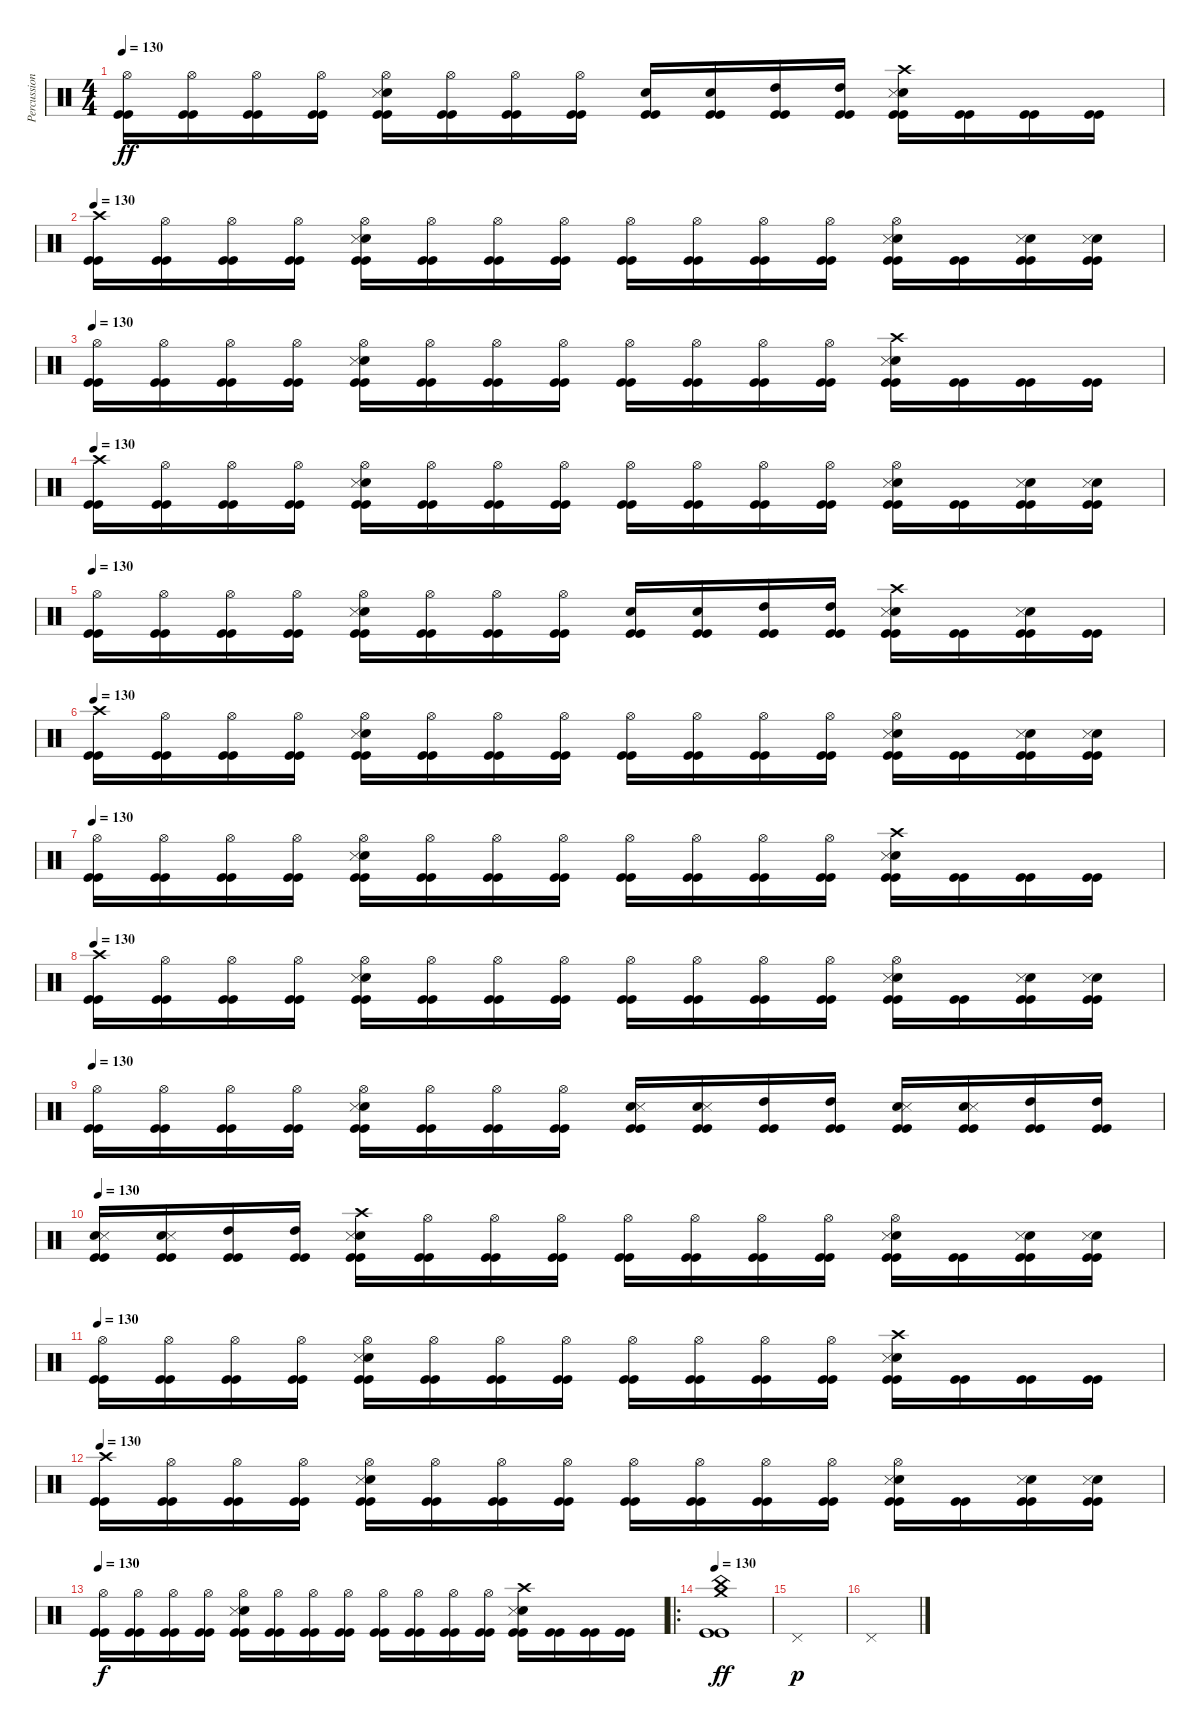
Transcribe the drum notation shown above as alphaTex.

\track ("Percussion" "Percussion") {instrument percussion}
\staff {score}
\articulation defaults
\ts (4 4)
\tempo 130
\clef neutral
\ks c
("Hi-Hat (open)" "Kick (hit)" "Kick (hit)").16{dy ff} ("Hi-Hat (open)" "Kick (hit)" "Kick (hit)").16 ("Hi-Hat (open)" "Kick (hit)" "Kick (hit)").16 ("Hi-Hat (open)" "Kick (hit)" "Kick (hit)").16 ("Electric Snare (hit)" "Snare (side stick) 3" "Hi-Hat (open)" "Kick (hit)" "Kick (hit)").16 ("Hi-Hat (open)" "Kick (hit)" "Kick (hit)").16 ("Hi-Hat (open)" "Kick (hit)" "Kick (hit)").16 ("Hi-Hat (open)" "Kick (hit)" "Kick (hit)").16 ("Electric Snare (hit)" "Kick (hit)" "Kick (hit)").16 ("Electric Snare (hit)" "Kick (hit)" "Kick (hit)").16 ("High Tom (hit)" "Kick (hit)" "Kick (hit)").16 ("High Tom (hit)" "Kick (hit)" "Kick (hit)").16 ("Electric Snare (hit)" "Snare (side stick) 3" "Crash high (hit)" "Kick (hit)" "Kick (hit)").16 ("Kick (hit)" "Kick (hit)").16 ("Kick (hit)" "Kick (hit)").16 ("Kick (hit)" "Kick (hit)").16 |
\tempo 130
("Crash high (hit)" "Kick (hit)" "Kick (hit)").16 ("Hi-Hat (open)" "Kick (hit)" "Kick (hit)").16 ("Hi-Hat (open)" "Kick (hit)" "Kick (hit)").16 ("Hi-Hat (open)" "Kick (hit)" "Kick (hit)").16 ("Electric Snare (hit)" "Snare (side stick) 3" "Hi-Hat (open)" "Kick (hit)" "Kick (hit)").16 ("Hi-Hat (open)" "Kick (hit)" "Kick (hit)").16 ("Hi-Hat (open)" "Kick (hit)" "Kick (hit)").16 ("Hi-Hat (open)" "Kick (hit)" "Kick (hit)").16 ("Hi-Hat (open)" "Kick (hit)" "Kick (hit)").16 ("Hi-Hat (open)" "Kick (hit)" "Kick (hit)").16 ("Hi-Hat (open)" "Kick (hit)" "Kick (hit)").16 ("Hi-Hat (open)" "Kick (hit)" "Kick (hit)").16 ("Electric Snare (hit)" "Snare (side stick) 3" "Hi-Hat (open)" "Kick (hit)" "Kick (hit)").16 ("Kick (hit)" "Kick (hit)").16 ("Electric Snare (hit)" "Snare (side stick) 3" "Kick (hit)" "Kick (hit)").16 ("Electric Snare (hit)" "Snare (side stick) 3" "Kick (hit)" "Kick (hit)").16 |
\tempo 130
("Hi-Hat (open)" "Kick (hit)" "Kick (hit)").16 ("Hi-Hat (open)" "Kick (hit)" "Kick (hit)").16 ("Hi-Hat (open)" "Kick (hit)" "Kick (hit)").16 ("Hi-Hat (open)" "Kick (hit)" "Kick (hit)").16 ("Electric Snare (hit)" "Snare (side stick) 3" "Hi-Hat (open)" "Kick (hit)" "Kick (hit)").16 ("Hi-Hat (open)" "Kick (hit)" "Kick (hit)").16 ("Hi-Hat (open)" "Kick (hit)" "Kick (hit)").16 ("Hi-Hat (open)" "Kick (hit)" "Kick (hit)").16 ("Hi-Hat (open)" "Kick (hit)" "Kick (hit)").16 ("Hi-Hat (open)" "Kick (hit)" "Kick (hit)").16 ("Hi-Hat (open)" "Kick (hit)" "Kick (hit)").16 ("Hi-Hat (open)" "Kick (hit)" "Kick (hit)").16 ("Electric Snare (hit)" "Snare (side stick) 3" "Crash high (hit)" "Kick (hit)" "Kick (hit)").16 ("Kick (hit)" "Kick (hit)").16 ("Kick (hit)" "Kick (hit)").16 ("Kick (hit)" "Kick (hit)").16 |
\tempo 130
("Crash high (hit)" "Kick (hit)" "Kick (hit)").16 ("Hi-Hat (open)" "Kick (hit)" "Kick (hit)").16 ("Hi-Hat (open)" "Kick (hit)" "Kick (hit)").16 ("Hi-Hat (open)" "Kick (hit)" "Kick (hit)").16 ("Electric Snare (hit)" "Snare (side stick) 3" "Hi-Hat (open)" "Kick (hit)" "Kick (hit)").16 ("Hi-Hat (open)" "Kick (hit)" "Kick (hit)").16 ("Hi-Hat (open)" "Kick (hit)" "Kick (hit)").16 ("Hi-Hat (open)" "Kick (hit)" "Kick (hit)").16 ("Hi-Hat (open)" "Kick (hit)" "Kick (hit)").16 ("Hi-Hat (open)" "Kick (hit)" "Kick (hit)").16 ("Hi-Hat (open)" "Kick (hit)" "Kick (hit)").16 ("Hi-Hat (open)" "Kick (hit)" "Kick (hit)").16 ("Electric Snare (hit)" "Snare (side stick) 3" "Hi-Hat (open)" "Kick (hit)" "Kick (hit)").16 ("Kick (hit)" "Kick (hit)").16 ("Electric Snare (hit)" "Snare (side stick) 3" "Kick (hit)" "Kick (hit)").16 ("Electric Snare (hit)" "Snare (side stick) 3" "Kick (hit)" "Kick (hit)").16 |
\tempo 130
("Hi-Hat (open)" "Kick (hit)" "Kick (hit)").16 ("Hi-Hat (open)" "Kick (hit)" "Kick (hit)").16 ("Hi-Hat (open)" "Kick (hit)" "Kick (hit)").16 ("Hi-Hat (open)" "Kick (hit)" "Kick (hit)").16 ("Electric Snare (hit)" "Snare (side stick) 3" "Hi-Hat (open)" "Kick (hit)" "Kick (hit)").16 ("Hi-Hat (open)" "Kick (hit)" "Kick (hit)").16 ("Hi-Hat (open)" "Kick (hit)" "Kick (hit)").16 ("Hi-Hat (open)" "Kick (hit)" "Kick (hit)").16 ("Electric Snare (hit)" "Kick (hit)" "Kick (hit)").16 ("Electric Snare (hit)" "Kick (hit)" "Kick (hit)").16 ("High Tom (hit)" "Kick (hit)" "Kick (hit)").16 ("High Tom (hit)" "Kick (hit)" "Kick (hit)").16 ("Electric Snare (hit)" "Snare (side stick) 3" "Crash high (hit)" "Kick (hit)" "Kick (hit)").16 ("Kick (hit)" "Kick (hit)").16 ("Electric Snare (hit)" "Snare (side stick) 3" "Kick (hit)" "Kick (hit)").16 ("Kick (hit)" "Kick (hit)").16 |
\tempo 130
("Crash high (hit)" "Kick (hit)" "Kick (hit)").16 ("Hi-Hat (open)" "Kick (hit)" "Kick (hit)").16 ("Hi-Hat (open)" "Kick (hit)" "Kick (hit)").16 ("Hi-Hat (open)" "Kick (hit)" "Kick (hit)").16 ("Electric Snare (hit)" "Snare (side stick) 3" "Hi-Hat (open)" "Kick (hit)" "Kick (hit)").16 ("Hi-Hat (open)" "Kick (hit)" "Kick (hit)").16 ("Hi-Hat (open)" "Kick (hit)" "Kick (hit)").16 ("Hi-Hat (open)" "Kick (hit)" "Kick (hit)").16 ("Hi-Hat (open)" "Kick (hit)" "Kick (hit)").16 ("Hi-Hat (open)" "Kick (hit)" "Kick (hit)").16 ("Hi-Hat (open)" "Kick (hit)" "Kick (hit)").16 ("Hi-Hat (open)" "Kick (hit)" "Kick (hit)").16 ("Electric Snare (hit)" "Snare (side stick) 3" "Hi-Hat (open)" "Kick (hit)" "Kick (hit)").16 ("Kick (hit)" "Kick (hit)").16 ("Electric Snare (hit)" "Snare (side stick) 3" "Kick (hit)" "Kick (hit)").16 ("Electric Snare (hit)" "Snare (side stick) 3" "Kick (hit)" "Kick (hit)").16 |
\tempo 130
("Hi-Hat (open)" "Kick (hit)" "Kick (hit)").16 ("Hi-Hat (open)" "Kick (hit)" "Kick (hit)").16 ("Hi-Hat (open)" "Kick (hit)" "Kick (hit)").16 ("Hi-Hat (open)" "Kick (hit)" "Kick (hit)").16 ("Electric Snare (hit)" "Snare (side stick) 3" "Hi-Hat (open)" "Kick (hit)" "Kick (hit)").16 ("Hi-Hat (open)" "Kick (hit)" "Kick (hit)").16 ("Hi-Hat (open)" "Kick (hit)" "Kick (hit)").16 ("Hi-Hat (open)" "Kick (hit)" "Kick (hit)").16 ("Hi-Hat (open)" "Kick (hit)" "Kick (hit)").16 ("Hi-Hat (open)" "Kick (hit)" "Kick (hit)").16 ("Hi-Hat (open)" "Kick (hit)" "Kick (hit)").16 ("Hi-Hat (open)" "Kick (hit)" "Kick (hit)").16 ("Electric Snare (hit)" "Snare (side stick) 3" "Crash high (hit)" "Kick (hit)" "Kick (hit)").16 ("Kick (hit)" "Kick (hit)").16 ("Kick (hit)" "Kick (hit)").16 ("Kick (hit)" "Kick (hit)").16 |
\tempo 130
("Crash high (hit)" "Kick (hit)" "Kick (hit)").16 ("Hi-Hat (open)" "Kick (hit)" "Kick (hit)").16 ("Hi-Hat (open)" "Kick (hit)" "Kick (hit)").16 ("Hi-Hat (open)" "Kick (hit)" "Kick (hit)").16 ("Electric Snare (hit)" "Snare (side stick) 3" "Hi-Hat (open)" "Kick (hit)" "Kick (hit)").16 ("Hi-Hat (open)" "Kick (hit)" "Kick (hit)").16 ("Hi-Hat (open)" "Kick (hit)" "Kick (hit)").16 ("Hi-Hat (open)" "Kick (hit)" "Kick (hit)").16 ("Hi-Hat (open)" "Kick (hit)" "Kick (hit)").16 ("Hi-Hat (open)" "Kick (hit)" "Kick (hit)").16 ("Hi-Hat (open)" "Kick (hit)" "Kick (hit)").16 ("Hi-Hat (open)" "Kick (hit)" "Kick (hit)").16 ("Electric Snare (hit)" "Snare (side stick) 3" "Hi-Hat (open)" "Kick (hit)" "Kick (hit)").16 ("Kick (hit)" "Kick (hit)").16 ("Electric Snare (hit)" "Snare (side stick) 3" "Kick (hit)" "Kick (hit)").16 ("Electric Snare (hit)" "Snare (side stick) 3" "Kick (hit)" "Kick (hit)").16 |
\tempo 130
("Hi-Hat (open)" "Kick (hit)" "Kick (hit)").16 ("Hi-Hat (open)" "Kick (hit)" "Kick (hit)").16 ("Hi-Hat (open)" "Kick (hit)" "Kick (hit)").16 ("Hi-Hat (open)" "Kick (hit)" "Kick (hit)").16 ("Electric Snare (hit)" "Snare (side stick) 3" "Hi-Hat (open)" "Kick (hit)" "Kick (hit)").16 ("Hi-Hat (open)" "Kick (hit)" "Kick (hit)").16 ("Hi-Hat (open)" "Kick (hit)" "Kick (hit)").16 ("Hi-Hat (open)" "Kick (hit)" "Kick (hit)").16 ("Electric Snare (hit)" "Snare (side stick) 3" "Kick (hit)" "Kick (hit)").16 ("Electric Snare (hit)" "Snare (side stick) 3" "Kick (hit)" "Kick (hit)").16 ("High Tom (hit)" "Kick (hit)" "Kick (hit)").16 ("High Tom (hit)" "Kick (hit)" "Kick (hit)").16 ("Electric Snare (hit)" "Snare (side stick) 3" "Kick (hit)" "Kick (hit)").16 ("Electric Snare (hit)" "Snare (side stick) 3" "Kick (hit)" "Kick (hit)").16 ("High Tom (hit)" "Kick (hit)" "Kick (hit)").16 ("High Tom (hit)" "Kick (hit)" "Kick (hit)").16 |
\tempo 130
("Electric Snare (hit)" "Snare (side stick) 3" "Kick (hit)" "Kick (hit)").16 ("Electric Snare (hit)" "Snare (side stick) 3" "Kick (hit)" "Kick (hit)").16 ("High Tom (hit)" "Kick (hit)" "Kick (hit)").16 ("High Tom (hit)" "Kick (hit)" "Kick (hit)").16 ("Electric Snare (hit)" "Snare (side stick) 3" "Crash high (hit)" "Kick (hit)" "Kick (hit)").16 ("Hi-Hat (open)" "Kick (hit)" "Kick (hit)").16 ("Hi-Hat (open)" "Kick (hit)" "Kick (hit)").16 ("Hi-Hat (open)" "Kick (hit)" "Kick (hit)").16 ("Hi-Hat (open)" "Kick (hit)" "Kick (hit)").16 ("Hi-Hat (open)" "Kick (hit)" "Kick (hit)").16 ("Hi-Hat (open)" "Kick (hit)" "Kick (hit)").16 ("Hi-Hat (open)" "Kick (hit)" "Kick (hit)").16 ("Electric Snare (hit)" "Snare (side stick) 3" "Hi-Hat (open)" "Kick (hit)" "Kick (hit)").16 ("Kick (hit)" "Kick (hit)").16 ("Electric Snare (hit)" "Snare (side stick) 3" "Kick (hit)" "Kick (hit)").16 ("Electric Snare (hit)" "Snare (side stick) 3" "Kick (hit)" "Kick (hit)").16 |
\tempo 130
("Hi-Hat (open)" "Kick (hit)" "Kick (hit)").16 ("Hi-Hat (open)" "Kick (hit)" "Kick (hit)").16 ("Hi-Hat (open)" "Kick (hit)" "Kick (hit)").16 ("Hi-Hat (open)" "Kick (hit)" "Kick (hit)").16 ("Electric Snare (hit)" "Snare (side stick) 3" "Hi-Hat (open)" "Kick (hit)" "Kick (hit)").16 ("Hi-Hat (open)" "Kick (hit)" "Kick (hit)").16 ("Hi-Hat (open)" "Kick (hit)" "Kick (hit)").16 ("Hi-Hat (open)" "Kick (hit)" "Kick (hit)").16 ("Hi-Hat (open)" "Kick (hit)" "Kick (hit)").16 ("Hi-Hat (open)" "Kick (hit)" "Kick (hit)").16 ("Hi-Hat (open)" "Kick (hit)" "Kick (hit)").16 ("Hi-Hat (open)" "Kick (hit)" "Kick (hit)").16 ("Electric Snare (hit)" "Snare (side stick) 3" "Crash high (hit)" "Kick (hit)" "Kick (hit)").16 ("Kick (hit)" "Kick (hit)").16 ("Kick (hit)" "Kick (hit)").16 ("Kick (hit)" "Kick (hit)").16 |
\tempo 130
("Crash high (hit)" "Kick (hit)" "Kick (hit)").16 ("Hi-Hat (open)" "Kick (hit)" "Kick (hit)").16 ("Hi-Hat (open)" "Kick (hit)" "Kick (hit)").16 ("Hi-Hat (open)" "Kick (hit)" "Kick (hit)").16 ("Electric Snare (hit)" "Snare (side stick) 3" "Hi-Hat (open)" "Kick (hit)" "Kick (hit)").16 ("Hi-Hat (open)" "Kick (hit)" "Kick (hit)").16 ("Hi-Hat (open)" "Kick (hit)" "Kick (hit)").16 ("Hi-Hat (open)" "Kick (hit)" "Kick (hit)").16 ("Hi-Hat (open)" "Kick (hit)" "Kick (hit)").16 ("Hi-Hat (open)" "Kick (hit)" "Kick (hit)").16 ("Hi-Hat (open)" "Kick (hit)" "Kick (hit)").16 ("Hi-Hat (open)" "Kick (hit)" "Kick (hit)").16 ("Electric Snare (hit)" "Snare (side stick) 3" "Hi-Hat (open)" "Kick (hit)" "Kick (hit)").16 ("Kick (hit)" "Kick (hit)").16 ("Electric Snare (hit)" "Snare (side stick) 3" "Kick (hit)" "Kick (hit)").16 ("Electric Snare (hit)" "Snare (side stick) 3" "Kick (hit)" "Kick (hit)").16 |
\tempo 130
("Hi-Hat (open)" "Kick (hit)" "Kick (hit)").16{dy f} ("Hi-Hat (open)" "Kick (hit)" "Kick (hit)").16 ("Hi-Hat (open)" "Kick (hit)" "Kick (hit)").16 ("Hi-Hat (open)" "Kick (hit)" "Kick (hit)").16 ("Electric Snare (hit)" "Snare (side stick) 3" "Hi-Hat (open)" "Kick (hit)" "Kick (hit)").16 ("Hi-Hat (open)" "Kick (hit)" "Kick (hit)").16 ("Hi-Hat (open)" "Kick (hit)" "Kick (hit)").16 ("Hi-Hat (open)" "Kick (hit)" "Kick (hit)").16 ("Hi-Hat (open)" "Kick (hit)" "Kick (hit)").16 ("Hi-Hat (open)" "Kick (hit)" "Kick (hit)").16 ("Hi-Hat (open)" "Kick (hit)" "Kick (hit)").16 ("Hi-Hat (open)" "Kick (hit)" "Kick (hit)").16 ("Electric Snare (hit)" "Snare (side stick) 3" "Crash high (hit)" "Kick (hit)" "Kick (hit)").16 ("Kick (hit)" "Kick (hit)").16 ("Kick (hit)" "Kick (hit)").16 ("Kick (hit)" "Kick (hit)").16 |
\ro
\tempo 130
("Crash medium (hit)" "China (hit)" "Kick (hit)" "Kick (hit)").1{dy ff} |
"Pedal Hi-Hat (hit)".1{dy p} |
"Pedal Hi-Hat (hit)".1
